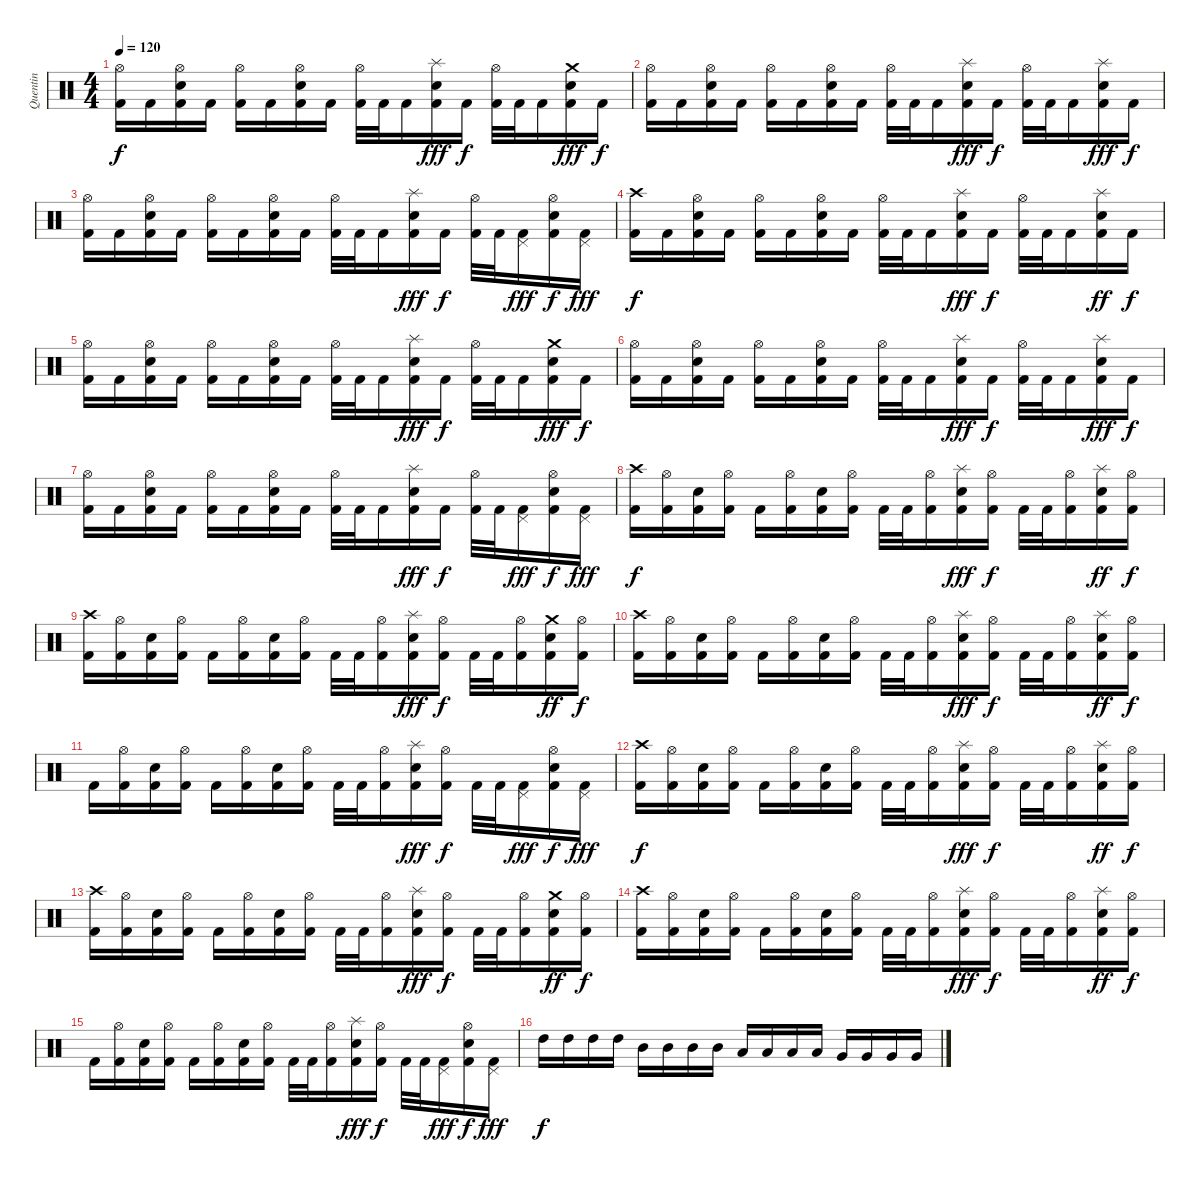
\track ("Quentin" "Quentin") {instrument percussion}
\staff {score}
\articulation defaults
\ts (4 4)
\tempo 120
\clef neutral
\ks c
("Hi-Hat (open)" "Kick (hit) 2").16{dy f} "Kick (hit) 2".16 ("Hi-Hat (open)" "Snare (hit) 2" "Kick (hit) 2").16 "Kick (hit) 2".16 ("Hi-Hat (open)" "Kick (hit) 2").16 "Kick (hit) 2".16 ("Hi-Hat (open)" "Snare (hit) 2" "Kick (hit) 2").16 "Kick (hit) 2".16 ("Hi-Hat (open)" "Kick (hit) 2").32 "Kick (hit) 2".32 "Kick (hit) 2".16 ("Splash (hit)" "Snare (hit) 2" "Kick (hit) 2").16{dy fff} "Kick (hit) 2".16{dy f} ("Hi-Hat (open)" "Kick (hit) 2").32 "Kick (hit) 2".32 "Kick (hit) 2".16 ("Crash medium (hit)" "Snare (hit) 2" "Kick (hit) 2").16{dy fff} "Kick (hit) 2".16{dy f} |
("Hi-Hat (open)" "Kick (hit) 2").16 "Kick (hit) 2".16 ("Hi-Hat (open)" "Snare (hit) 2" "Kick (hit) 2").16 "Kick (hit) 2".16 ("Hi-Hat (open)" "Kick (hit) 2").16 "Kick (hit) 2".16 ("Hi-Hat (open)" "Snare (hit) 2" "Kick (hit) 2").16 "Kick (hit) 2".16 ("Hi-Hat (open)" "Kick (hit) 2").32 "Kick (hit) 2".32 "Kick (hit) 2".16 ("Splash (hit)" "Snare (hit) 2" "Kick (hit) 2").16{dy fff} "Kick (hit) 2".16{dy f} ("Hi-Hat (open)" "Kick (hit) 2").32 "Kick (hit) 2".32 "Kick (hit) 2".16 ("Splash (hit)" "Snare (hit) 2" "Kick (hit) 2").16{dy fff} "Kick (hit) 2".16{dy f} |
("Hi-Hat (open)" "Kick (hit) 2").16 "Kick (hit) 2".16 ("Hi-Hat (open)" "Snare (hit) 2" "Kick (hit) 2").16 "Kick (hit) 2".16 ("Hi-Hat (open)" "Kick (hit) 2").16 "Kick (hit) 2".16 ("Hi-Hat (open)" "Snare (hit) 2" "Kick (hit) 2").16 "Kick (hit) 2".16 ("Hi-Hat (open)" "Kick (hit) 2").32 "Kick (hit) 2".32 "Kick (hit) 2".16 ("Splash (hit)" "Snare (hit) 2" "Kick (hit) 2").16{dy fff} "Kick (hit) 2".16{dy f} ("Hi-Hat (open)" "Kick (hit) 2").32 "Kick (hit) 2".32 ("Pedal Hi-Hat (hit)" "Kick (hit) 2").16{dy fff} ("Hi-Hat (open)" "Snare (hit) 2" "Kick (hit) 2").16{dy f} ("Pedal Hi-Hat (hit)" "Kick (hit) 2").16{dy fff} |
("Crash high (hit)" "Kick (hit) 2").16{dy f} "Kick (hit) 2".16 ("Hi-Hat (open)" "Snare (hit) 2" "Kick (hit) 2").16 "Kick (hit) 2".16 ("Hi-Hat (open)" "Kick (hit) 2").16 "Kick (hit) 2".16 ("Hi-Hat (open)" "Snare (hit) 2" "Kick (hit) 2").16 "Kick (hit) 2".16 ("Hi-Hat (open)" "Kick (hit) 2").32 "Kick (hit) 2".32 "Kick (hit) 2".16 ("Splash (hit)" "Snare (hit) 2" "Kick (hit) 2").16{dy fff} "Kick (hit) 2".16{dy f} ("Hi-Hat (open)" "Kick (hit) 2").32 "Kick (hit) 2".32 "Kick (hit) 2".16 ("Splash (hit)" "Snare (hit) 2" "Kick (hit) 2").16{dy ff} "Kick (hit) 2".16{dy f} |
("Hi-Hat (open)" "Kick (hit) 2").16 "Kick (hit) 2".16 ("Hi-Hat (open)" "Snare (hit) 2" "Kick (hit) 2").16 "Kick (hit) 2".16 ("Hi-Hat (open)" "Kick (hit) 2").16 "Kick (hit) 2".16 ("Hi-Hat (open)" "Snare (hit) 2" "Kick (hit) 2").16 "Kick (hit) 2".16 ("Hi-Hat (open)" "Kick (hit) 2").32 "Kick (hit) 2".32 "Kick (hit) 2".16 ("Splash (hit)" "Snare (hit) 2" "Kick (hit) 2").16{dy fff} "Kick (hit) 2".16{dy f} ("Hi-Hat (open)" "Kick (hit) 2").32 "Kick (hit) 2".32 "Kick (hit) 2".16 ("Crash medium (hit)" "Snare (hit) 2" "Kick (hit) 2").16{dy fff} "Kick (hit) 2".16{dy f} |
("Hi-Hat (open)" "Kick (hit) 2").16 "Kick (hit) 2".16 ("Hi-Hat (open)" "Snare (hit) 2" "Kick (hit) 2").16 "Kick (hit) 2".16 ("Hi-Hat (open)" "Kick (hit) 2").16 "Kick (hit) 2".16 ("Hi-Hat (open)" "Snare (hit) 2" "Kick (hit) 2").16 "Kick (hit) 2".16 ("Hi-Hat (open)" "Kick (hit) 2").32 "Kick (hit) 2".32 "Kick (hit) 2".16 ("Splash (hit)" "Snare (hit) 2" "Kick (hit) 2").16{dy fff} "Kick (hit) 2".16{dy f} ("Hi-Hat (open)" "Kick (hit) 2").32 "Kick (hit) 2".32 "Kick (hit) 2".16 ("Splash (hit)" "Snare (hit) 2" "Kick (hit) 2").16{dy fff} "Kick (hit) 2".16{dy f} |
("Hi-Hat (open)" "Kick (hit) 2").16 "Kick (hit) 2".16 ("Hi-Hat (open)" "Snare (hit) 2" "Kick (hit) 2").16 "Kick (hit) 2".16 ("Hi-Hat (open)" "Kick (hit) 2").16 "Kick (hit) 2".16 ("Hi-Hat (open)" "Snare (hit) 2" "Kick (hit) 2").16 "Kick (hit) 2".16 ("Hi-Hat (open)" "Kick (hit) 2").32 "Kick (hit) 2".32 "Kick (hit) 2".16 ("Splash (hit)" "Snare (hit) 2" "Kick (hit) 2").16{dy fff} "Kick (hit) 2".16{dy f} ("Hi-Hat (open)" "Kick (hit) 2").32 "Kick (hit) 2".32 ("Pedal Hi-Hat (hit)" "Kick (hit) 2").16{dy fff} ("Hi-Hat (open)" "Snare (hit) 2" "Kick (hit) 2").16{dy f} ("Pedal Hi-Hat (hit)" "Kick (hit) 2").16{dy fff} |
("Crash high (hit)" "Kick (hit) 2").16{dy f} ("Hi-Hat (open)" "Kick (hit) 2").16 ("Snare (hit) 2" "Kick (hit) 2").16 ("Hi-Hat (open)" "Kick (hit) 2").16 "Kick (hit) 2".16 ("Hi-Hat (open)" "Kick (hit) 2").16 ("Snare (hit) 2" "Kick (hit) 2").16 ("Hi-Hat (open)" "Kick (hit) 2").16 "Kick (hit) 2".32 "Kick (hit) 2".32 ("Hi-Hat (open)" "Kick (hit) 2").16 ("Splash (hit)" "Snare (hit) 2" "Kick (hit) 2").16{dy fff} ("Hi-Hat (open)" "Kick (hit) 2").16{dy f} "Kick (hit) 2".32 "Kick (hit) 2".32 ("Hi-Hat (open)" "Kick (hit) 2").16 ("Splash (hit)" "Snare (hit) 2" "Kick (hit) 2").16{dy ff} ("Hi-Hat (open)" "Kick (hit) 2").16{dy f} |
("Crash high (hit)" "Kick (hit) 2").16 ("Hi-Hat (open)" "Kick (hit) 2").16 ("Snare (hit) 2" "Kick (hit) 2").16 ("Hi-Hat (open)" "Kick (hit) 2").16 "Kick (hit) 2".16 ("Hi-Hat (open)" "Kick (hit) 2").16 ("Snare (hit) 2" "Kick (hit) 2").16 ("Hi-Hat (open)" "Kick (hit) 2").16 "Kick (hit) 2".32 "Kick (hit) 2".32 ("Hi-Hat (open)" "Kick (hit) 2").16 ("Splash (hit)" "Snare (hit) 2" "Kick (hit) 2").16{dy fff} ("Hi-Hat (open)" "Kick (hit) 2").16{dy f} "Kick (hit) 2".32 "Kick (hit) 2".32 ("Hi-Hat (open)" "Kick (hit) 2").16 ("Crash medium (hit)" "Snare (hit) 2" "Kick (hit) 2").16{dy ff} ("Hi-Hat (open)" "Kick (hit) 2").16{dy f} |
("Crash high (hit)" "Kick (hit) 2").16 ("Hi-Hat (open)" "Kick (hit) 2").16 ("Snare (hit) 2" "Kick (hit) 2").16 ("Hi-Hat (open)" "Kick (hit) 2").16 "Kick (hit) 2".16 ("Hi-Hat (open)" "Kick (hit) 2").16 ("Snare (hit) 2" "Kick (hit) 2").16 ("Hi-Hat (open)" "Kick (hit) 2").16 "Kick (hit) 2".32 "Kick (hit) 2".32 ("Hi-Hat (open)" "Kick (hit) 2").16 ("Splash (hit)" "Snare (hit) 2" "Kick (hit) 2").16{dy fff} ("Hi-Hat (open)" "Kick (hit) 2").16{dy f} "Kick (hit) 2".32 "Kick (hit) 2".32 ("Hi-Hat (open)" "Kick (hit) 2").16 ("Splash (hit)" "Snare (hit) 2" "Kick (hit) 2").16{dy ff} ("Hi-Hat (open)" "Kick (hit) 2").16{dy f} |
"Kick (hit) 2".16 ("Hi-Hat (open)" "Kick (hit) 2").16 ("Snare (hit) 2" "Kick (hit) 2").16 ("Hi-Hat (open)" "Kick (hit) 2").16 "Kick (hit) 2".16 ("Hi-Hat (open)" "Kick (hit) 2").16 ("Snare (hit) 2" "Kick (hit) 2").16 ("Hi-Hat (open)" "Kick (hit) 2").16 "Kick (hit) 2".32 "Kick (hit) 2".32 ("Hi-Hat (open)" "Kick (hit) 2").16 ("Splash (hit)" "Snare (hit) 2" "Kick (hit) 2").16{dy fff} ("Hi-Hat (open)" "Kick (hit) 2").16{dy f} "Kick (hit) 2".32 "Kick (hit) 2".32 ("Pedal Hi-Hat (hit)" "Kick (hit) 2").16{dy fff} ("Hi-Hat (open)" "Snare (hit) 2" "Kick (hit) 2").16{dy f} ("Pedal Hi-Hat (hit)" "Kick (hit) 2").16{dy fff} |
("Crash high (hit)" "Kick (hit) 2").16{dy f} ("Hi-Hat (open)" "Kick (hit) 2").16 ("Snare (hit) 2" "Kick (hit) 2").16 ("Hi-Hat (open)" "Kick (hit) 2").16 "Kick (hit) 2".16 ("Hi-Hat (open)" "Kick (hit) 2").16 ("Snare (hit) 2" "Kick (hit) 2").16 ("Hi-Hat (open)" "Kick (hit) 2").16 "Kick (hit) 2".32 "Kick (hit) 2".32 ("Hi-Hat (open)" "Kick (hit) 2").16 ("Splash (hit)" "Snare (hit) 2" "Kick (hit) 2").16{dy fff} ("Hi-Hat (open)" "Kick (hit) 2").16{dy f} "Kick (hit) 2".32 "Kick (hit) 2".32 ("Hi-Hat (open)" "Kick (hit) 2").16 ("Splash (hit)" "Snare (hit) 2" "Kick (hit) 2").16{dy ff} ("Hi-Hat (open)" "Kick (hit) 2").16{dy f} |
("Crash high (hit)" "Kick (hit) 2").16 ("Hi-Hat (open)" "Kick (hit) 2").16 ("Snare (hit) 2" "Kick (hit) 2").16 ("Hi-Hat (open)" "Kick (hit) 2").16 "Kick (hit) 2".16 ("Hi-Hat (open)" "Kick (hit) 2").16 ("Snare (hit) 2" "Kick (hit) 2").16 ("Hi-Hat (open)" "Kick (hit) 2").16 "Kick (hit) 2".32 "Kick (hit) 2".32 ("Hi-Hat (open)" "Kick (hit) 2").16 ("Splash (hit)" "Snare (hit) 2" "Kick (hit) 2").16{dy fff} ("Hi-Hat (open)" "Kick (hit) 2").16{dy f} "Kick (hit) 2".32 "Kick (hit) 2".32 ("Hi-Hat (open)" "Kick (hit) 2").16 ("Crash medium (hit)" "Snare (hit) 2" "Kick (hit) 2").16{dy ff} ("Hi-Hat (open)" "Kick (hit) 2").16{dy f} |
("Crash high (hit)" "Kick (hit) 2").16 ("Hi-Hat (open)" "Kick (hit) 2").16 ("Snare (hit) 2" "Kick (hit) 2").16 ("Hi-Hat (open)" "Kick (hit) 2").16 "Kick (hit) 2".16 ("Hi-Hat (open)" "Kick (hit) 2").16 ("Snare (hit) 2" "Kick (hit) 2").16 ("Hi-Hat (open)" "Kick (hit) 2").16 "Kick (hit) 2".32 "Kick (hit) 2".32 ("Hi-Hat (open)" "Kick (hit) 2").16 ("Splash (hit)" "Snare (hit) 2" "Kick (hit) 2").16{dy fff} ("Hi-Hat (open)" "Kick (hit) 2").16{dy f} "Kick (hit) 2".32 "Kick (hit) 2".32 ("Hi-Hat (open)" "Kick (hit) 2").16 ("Splash (hit)" "Snare (hit) 2" "Kick (hit) 2").16{dy ff} ("Hi-Hat (open)" "Kick (hit) 2").16{dy f} |
"Kick (hit) 2".16 ("Hi-Hat (open)" "Kick (hit) 2").16 ("Snare (hit) 2" "Kick (hit) 2").16 ("Hi-Hat (open)" "Kick (hit) 2").16 "Kick (hit) 2".16 ("Hi-Hat (open)" "Kick (hit) 2").16 ("Snare (hit) 2" "Kick (hit) 2").16 ("Hi-Hat (open)" "Kick (hit) 2").16 "Kick (hit) 2".32 "Kick (hit) 2".32 ("Hi-Hat (open)" "Kick (hit) 2").16 ("Splash (hit)" "Snare (hit) 2" "Kick (hit) 2").16{dy fff} ("Hi-Hat (open)" "Kick (hit) 2").16{dy f} "Kick (hit) 2".32 "Kick (hit) 2".32 ("Pedal Hi-Hat (hit)" "Kick (hit) 2").16{dy fff} ("Hi-Hat (open)" "Snare (hit) 2" "Kick (hit) 2").16{dy f} ("Pedal Hi-Hat (hit)" "Kick (hit) 2").16{dy fff} |
"High Tom (hit)".16{dy f} "High Tom (hit)".16 "High Tom (hit)".16 "High Tom (hit)".16 "Mid Tom (hit)".16 "Mid Tom (hit)".16 "Mid Tom (hit)".16 "Mid Tom (hit)".16 "Low Tom (hit)".16 "Low Tom (hit)".16 "Low Tom (hit)".16 "Low Tom (hit)".16 "Very Low Tom (hit)".16 "Very Low Tom (hit)".16 "Very Low Tom (hit)".16 "Very Low Tom (hit)".16
